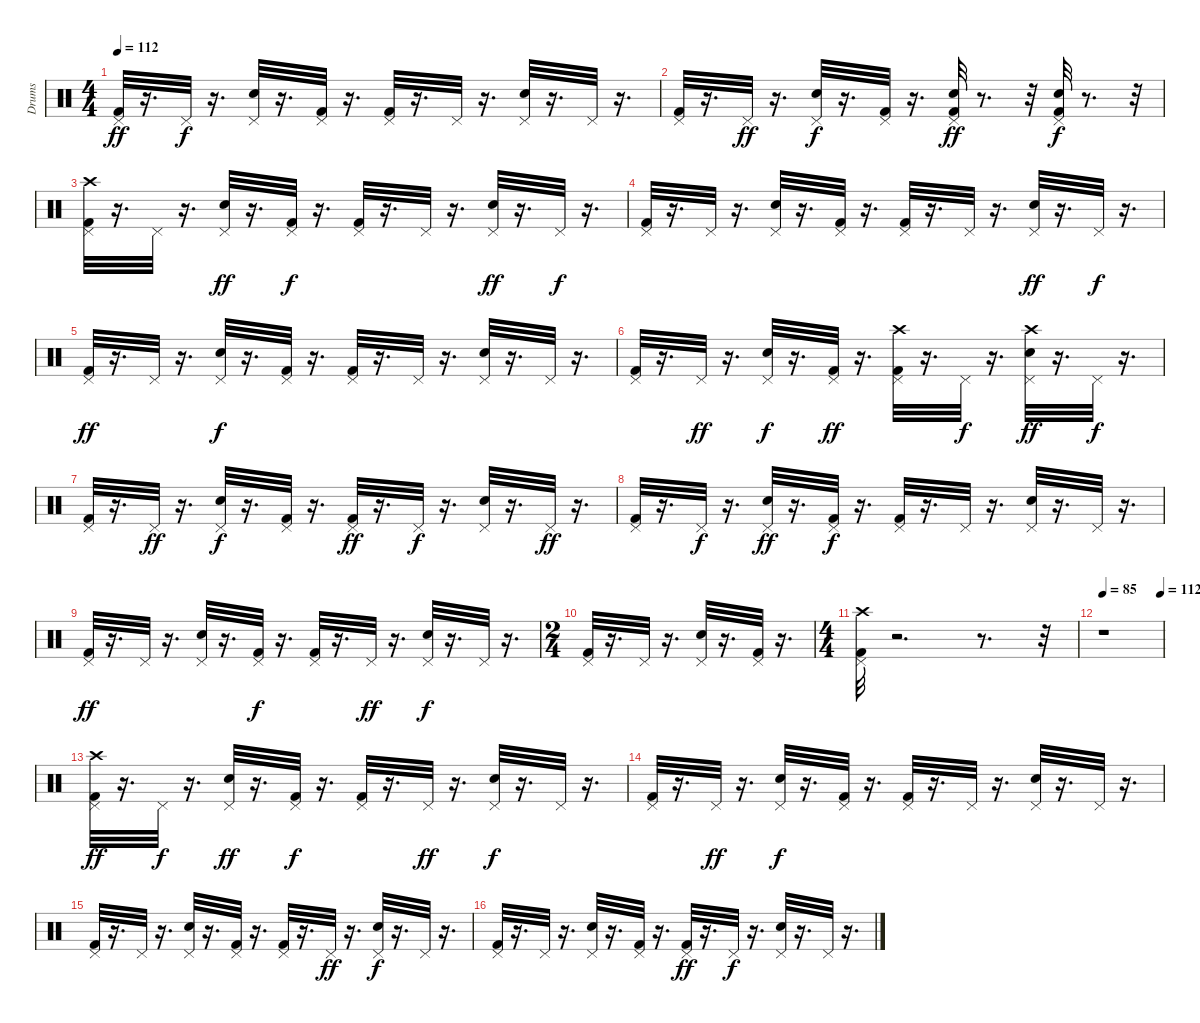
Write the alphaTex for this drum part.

\track ("Drums" "Drums") {instrument percussion}
\staff {score}
\articulation defaults
\ts (4 4)
\tempo 112
\clef neutral
\ks c
("Kick (hit) 2" "Pedal Hi-Hat (hit)").32{dy ff} r.16{d} "Pedal Hi-Hat (hit)".32{dy f} r.16{d} ("Snare (hit) 2" "Pedal Hi-Hat (hit)").32 r.16{d} ("Kick (hit) 2" "Pedal Hi-Hat (hit)").32 r.16{d} ("Kick (hit) 2" "Pedal Hi-Hat (hit)").32 r.16{d} "Pedal Hi-Hat (hit)".32 r.16{d} ("Pedal Hi-Hat (hit)" "Snare (hit) 2").32 r.16{d} "Pedal Hi-Hat (hit)".32 r.16{d} |
("Kick (hit) 2" "Pedal Hi-Hat (hit)").32 r.16{d} "Pedal Hi-Hat (hit)".32{dy ff} r.16{d} ("Pedal Hi-Hat (hit)" "Snare (hit) 2").32{dy f} r.16{d} ("Pedal Hi-Hat (hit)" "Kick (hit) 2").32 r.16{d} ("Snare (hit) 2" "Pedal Hi-Hat (hit)" "Kick (hit) 2").32{dy ff} r.8{d} r.32 ("Kick (hit) 2" "Pedal Hi-Hat (hit)" "Snare (hit) 2").32{dy f} r.8{d} r.32 |
("Kick (hit) 2" "Pedal Hi-Hat (hit)" "Crash high (hit)").32 r.16{d} "Pedal Hi-Hat (hit)".32 r.16{d} ("Pedal Hi-Hat (hit)" "Snare (hit) 2").32{dy ff} r.16{d} ("Pedal Hi-Hat (hit)" "Kick (hit) 2").32{dy f} r.16{d} ("Pedal Hi-Hat (hit)" "Kick (hit) 2").32 r.16{d} "Pedal Hi-Hat (hit)".32 r.16{d} ("Snare (hit) 2" "Pedal Hi-Hat (hit)").32{dy ff} r.16{d} "Pedal Hi-Hat (hit)".32{dy f} r.16{d} |
("Kick (hit) 2" "Pedal Hi-Hat (hit)").32 r.16{d} "Pedal Hi-Hat (hit)".32 r.16{d} ("Snare (hit) 2" "Pedal Hi-Hat (hit)").32 r.16{d} ("Pedal Hi-Hat (hit)" "Kick (hit) 2").32 r.16{d} ("Pedal Hi-Hat (hit)" "Kick (hit) 2").32 r.16{d} "Pedal Hi-Hat (hit)".32 r.16{d} ("Snare (hit) 2" "Pedal Hi-Hat (hit)").32{dy ff} r.16{d} "Pedal Hi-Hat (hit)".32{dy f} r.16{d} |
("Kick (hit) 2" "Pedal Hi-Hat (hit)").32{dy ff} r.16{d} "Pedal Hi-Hat (hit)".32 r.16{d} ("Snare (hit) 2" "Pedal Hi-Hat (hit)").32{dy f} r.16{d} ("Kick (hit) 2" "Pedal Hi-Hat (hit)").32 r.16{d} ("Pedal Hi-Hat (hit)" "Kick (hit) 2").32 r.16{d} "Pedal Hi-Hat (hit)".32 r.16{d} ("Pedal Hi-Hat (hit)" "Snare (hit) 2").32 r.16{d} "Pedal Hi-Hat (hit)".32 r.16{d} |
("Kick (hit) 2" "Pedal Hi-Hat (hit)").32 r.16{d} "Pedal Hi-Hat (hit)".32{dy ff} r.16{d} ("Snare (hit) 2" "Pedal Hi-Hat (hit)").32{dy f} r.16{d} ("Pedal Hi-Hat (hit)" "Kick (hit) 2").32{dy ff} r.16{d} ("Crash high (hit)" "Kick (hit) 2" "Pedal Hi-Hat (hit)").32 r.16{d} "Pedal Hi-Hat (hit)".32{dy f} r.16{d} ("Crash high (hit)" "Pedal Hi-Hat (hit)" "Snare (hit) 2").32{dy ff} r.16{d} "Pedal Hi-Hat (hit)".32{dy f} r.16{d} |
("Pedal Hi-Hat (hit)" "Kick (hit) 2").32 r.16{d} "Pedal Hi-Hat (hit)".32{dy ff} r.16{d} ("Pedal Hi-Hat (hit)" "Snare (hit) 2").32{dy f} r.16{d} ("Kick (hit) 2" "Pedal Hi-Hat (hit)").32 r.16{d} ("Kick (hit) 2" "Pedal Hi-Hat (hit)").32{dy ff} r.16{d} "Pedal Hi-Hat (hit)".32{dy f} r.16{d} ("Pedal Hi-Hat (hit)" "Snare (hit) 2").32 r.16{d} "Pedal Hi-Hat (hit)".32{dy ff} r.16{d} |
("Kick (hit) 2" "Pedal Hi-Hat (hit)").32 r.16{d} "Pedal Hi-Hat (hit)".32{dy f} r.16{d} ("Snare (hit) 2" "Pedal Hi-Hat (hit)").32{dy ff} r.16{d} ("Pedal Hi-Hat (hit)" "Kick (hit) 2").32{dy f} r.16{d} ("Kick (hit) 2" "Pedal Hi-Hat (hit)").32 r.16{d} "Pedal Hi-Hat (hit)".32 r.16{d} ("Snare (hit) 2" "Pedal Hi-Hat (hit)").32 r.16{d} "Pedal Hi-Hat (hit)".32 r.16{d} |
("Pedal Hi-Hat (hit)" "Kick (hit) 2").32{dy ff} r.16{d} "Pedal Hi-Hat (hit)".32 r.16{d} ("Pedal Hi-Hat (hit)" "Snare (hit) 2").32 r.16{d} ("Pedal Hi-Hat (hit)" "Kick (hit) 2").32{dy f} r.16{d} ("Pedal Hi-Hat (hit)" "Kick (hit) 2").32 r.16{d} "Pedal Hi-Hat (hit)".32{dy ff} r.16{d} ("Pedal Hi-Hat (hit)" "Snare (hit) 2").32{dy f} r.16{d} "Pedal Hi-Hat (hit)".32 r.16{d} |
\ts (2 4)
("Pedal Hi-Hat (hit)" "Kick (hit) 2").32 r.16{d} "Pedal Hi-Hat (hit)".32 r.16{d} ("Snare (hit) 2" "Pedal Hi-Hat (hit)").32 r.16{d} ("Pedal Hi-Hat (hit)" "Kick (hit) 2").32 r.16{d} |
\ts (4 4)
("Kick (hit) 2" "Pedal Hi-Hat (hit)" "Crash high (hit)").32 r.2{d} r.8{d} r.32 |
\tempo 85
\tempo (112 0.96875)
r.1 |
("Crash high (hit)" "Pedal Hi-Hat (hit)" "Kick (hit) 2").32{dy ff} r.16{d} "Pedal Hi-Hat (hit)".32{dy f} r.16{d} ("Snare (hit) 2" "Pedal Hi-Hat (hit)").32{dy ff} r.16{d} ("Pedal Hi-Hat (hit)" "Kick (hit) 2").32{dy f} r.16{d} ("Kick (hit) 2" "Pedal Hi-Hat (hit)").32 r.16{d} "Pedal Hi-Hat (hit)".32{dy ff} r.16{d} ("Pedal Hi-Hat (hit)" "Snare (hit) 2").32{dy f} r.16{d} "Pedal Hi-Hat (hit)".32 r.16{d} |
("Pedal Hi-Hat (hit)" "Kick (hit) 2").32 r.16{d} "Pedal Hi-Hat (hit)".32{dy ff} r.16{d} ("Snare (hit) 2" "Pedal Hi-Hat (hit)").32{dy f} r.16{d} ("Pedal Hi-Hat (hit)" "Kick (hit) 2").32 r.16{d} ("Pedal Hi-Hat (hit)" "Kick (hit) 2").32 r.16{d} "Pedal Hi-Hat (hit)".32 r.16{d} ("Pedal Hi-Hat (hit)" "Snare (hit) 2").32 r.16{d} "Pedal Hi-Hat (hit)".32 r.16{d} |
("Kick (hit) 2" "Pedal Hi-Hat (hit)").32 r.16{d} "Pedal Hi-Hat (hit)".32 r.16{d} ("Snare (hit) 2" "Pedal Hi-Hat (hit)").32 r.16{d} ("Kick (hit) 2" "Pedal Hi-Hat (hit)").32 r.16{d} ("Pedal Hi-Hat (hit)" "Kick (hit) 2").32 r.16{d} "Pedal Hi-Hat (hit)".32{dy ff} r.16{d} ("Snare (hit) 2" "Pedal Hi-Hat (hit)").32{dy f} r.16{d} "Pedal Hi-Hat (hit)".32 r.16{d} |
("Kick (hit) 2" "Pedal Hi-Hat (hit)").32 r.16{d} "Pedal Hi-Hat (hit)".32 r.16{d} ("Pedal Hi-Hat (hit)" "Snare (hit) 2").32 r.16{d} ("Kick (hit) 2" "Pedal Hi-Hat (hit)").32 r.16{d} ("Pedal Hi-Hat (hit)" "Kick (hit) 2").32{dy ff} r.16{d} "Pedal Hi-Hat (hit)".32{dy f} r.16{d} ("Pedal Hi-Hat (hit)" "Snare (hit) 2").32 r.16{d} "Pedal Hi-Hat (hit)".32 r.16{d}
